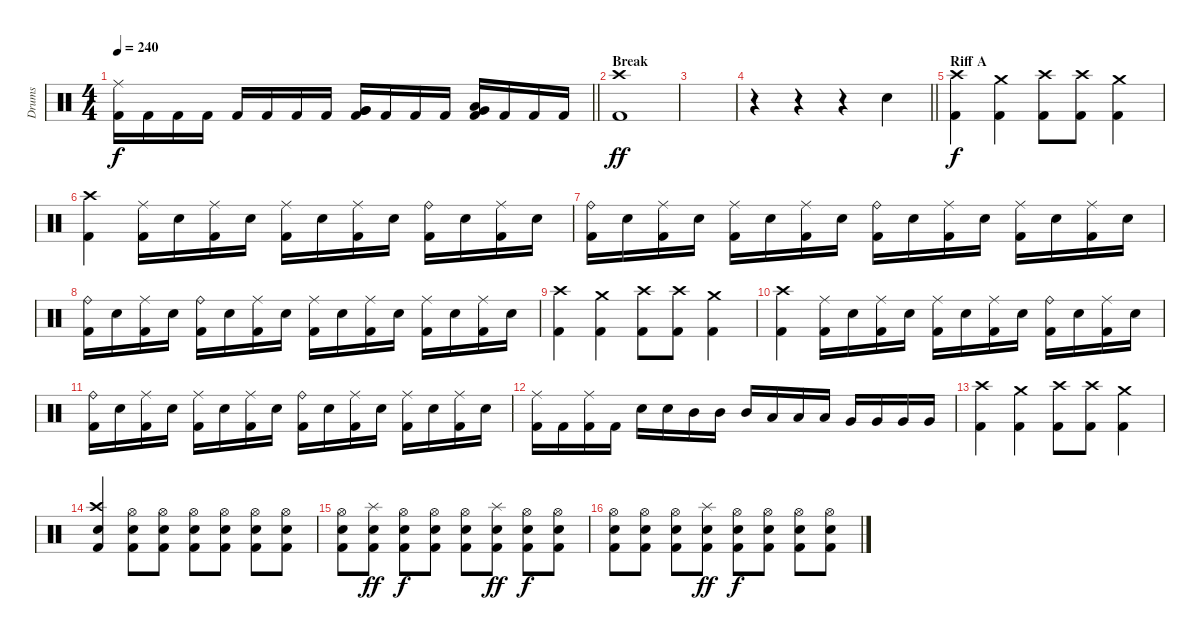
\track ("Drums" "Drums") {instrument percussion}
\staff {score}
\articulation defaults
\ts (4 4)
\tempo 240
\clef neutral
\barLineRight lightlight
\ks c
("Ride (middle)" "Kick (hit) 2").16{dy f} "Kick (hit) 2".16 "Kick (hit) 2".16 "Kick (hit) 2".16 "Kick (hit) 2".16 "Kick (hit) 2".16 "Kick (hit) 2".16 "Kick (hit) 2".16 ("Very Low Tom (hit)" "Very Low Tom (hit)" "Kick (hit) 2").16 "Kick (hit) 2".16 "Kick (hit) 2".16 "Kick (hit) 2".16 ("Very Low Tom (hit)" "Low Floor Tom (hit)" "Kick (hit) 2").16 "Kick (hit) 2".16 "Kick (hit) 2".16 "Kick (hit) 2".16 |
\section ("" "Break")
("Crash high (hit)" "Kick (hit) 2").1{dy ff} |
|
\barLineRight lightlight
r.4 r.4 r.4 "Electric Snare (hit)".4 |
\section ("" "Riff A")
("Crash high (hit)" "Kick (hit) 2").4{dy f} ("Crash medium (hit)" "Kick (hit) 2").4 ("Crash high (hit)" "Kick (hit) 2").8 ("Crash high (hit)" "Kick (hit) 2").8 ("Crash medium (hit)" "Kick (hit) 2").4 |
("Crash high (hit)" "Kick (hit) 2").4 ("Ride (middle)" "Kick (hit) 2").16 "Electric Snare (hit)".16 ("Ride (middle)" "Kick (hit) 2").16 "Electric Snare (hit)".16 ("Ride (middle)" "Kick (hit) 2").16 "Electric Snare (hit)".16 ("Ride (middle)" "Kick (hit) 2").16 "Electric Snare (hit)".16 ("Ride (bell)" "Kick (hit) 2").16 "Electric Snare (hit)".16 ("Ride (middle)" "Kick (hit) 2").16 "Electric Snare (hit)".16 |
("Ride (bell)" "Kick (hit) 2").16 "Electric Snare (hit)".16 ("Ride (middle)" "Kick (hit) 2").16 "Electric Snare (hit)".16 ("Ride (middle)" "Kick (hit) 2").16 "Electric Snare (hit)".16 ("Ride (middle)" "Kick (hit) 2").16 "Electric Snare (hit)".16 ("Ride (bell)" "Kick (hit) 2").16 "Electric Snare (hit)".16 ("Ride (middle)" "Kick (hit) 2").16 "Electric Snare (hit)".16 ("Ride (middle)" "Kick (hit) 2").16 "Electric Snare (hit)".16 ("Ride (middle)" "Kick (hit) 2").16 "Electric Snare (hit)".16 |
("Ride (bell)" "Kick (hit) 2").16 "Electric Snare (hit)".16 ("Ride (middle)" "Kick (hit) 2").16 "Electric Snare (hit)".16 ("Ride (bell)" "Kick (hit) 2").16 "Electric Snare (hit)".16 ("Ride (middle)" "Kick (hit) 2").16 "Electric Snare (hit)".16 ("Ride (middle)" "Kick (hit) 2").16 "Electric Snare (hit)".16 ("Ride (middle)" "Kick (hit) 2").16 "Electric Snare (hit)".16 ("Ride (middle)" "Kick (hit) 2").16 "Electric Snare (hit)".16 ("Ride (middle)" "Kick (hit) 2").16 "Electric Snare (hit)".16 |
("Crash high (hit)" "Kick (hit) 2").4 ("Crash medium (hit)" "Kick (hit) 2").4 ("Crash high (hit)" "Kick (hit) 2").8 ("Crash high (hit)" "Kick (hit) 2").8 ("Crash medium (hit)" "Kick (hit) 2").4 |
("Crash high (hit)" "Kick (hit) 2").4 ("Ride (middle)" "Kick (hit) 2").16 "Electric Snare (hit)".16 ("Ride (middle)" "Kick (hit) 2").16 "Electric Snare (hit)".16 ("Ride (middle)" "Kick (hit) 2").16 "Electric Snare (hit)".16 ("Ride (middle)" "Kick (hit) 2").16 "Electric Snare (hit)".16 ("Ride (bell)" "Kick (hit) 2").16 "Electric Snare (hit)".16 ("Ride (middle)" "Kick (hit) 2").16 "Electric Snare (hit)".16 |
("Ride (bell)" "Kick (hit) 2").16 "Electric Snare (hit)".16 ("Ride (middle)" "Kick (hit) 2").16 "Electric Snare (hit)".16 ("Ride (middle)" "Kick (hit) 2").16 "Electric Snare (hit)".16 ("Ride (middle)" "Kick (hit) 2").16 "Electric Snare (hit)".16 ("Ride (bell)" "Kick (hit) 2").16 "Electric Snare (hit)".16 ("Ride (middle)" "Kick (hit) 2").16 "Electric Snare (hit)".16 ("Ride (middle)" "Kick (hit) 2").16 "Electric Snare (hit)".16 ("Ride (middle)" "Kick (hit) 2").16 "Electric Snare (hit)".16 |
("Ride (middle)" "Kick (hit) 2").16 "Kick (hit) 2".16 ("Ride (middle)" "Kick (hit) 2").16 "Kick (hit) 2".16 "Electric Snare (hit)".16 "Electric Snare (hit)".16 "Mid Tom (hit)".16 "Mid Tom (hit)".16 "Mid Tom (hit)".16 "Low Tom (hit)".16 "Low Tom (hit)".16 "Low Tom (hit)".16 "Very Low Tom (hit)".16 "Very Low Tom (hit)".16 "Very Low Tom (hit)".16 "Very Low Tom (hit)".16 |
("Crash high (hit)" "Kick (hit) 2").4 ("Crash medium (hit)" "Kick (hit) 2").4 ("Crash high (hit)" "Kick (hit) 2").8 ("Crash high (hit)" "Kick (hit) 2").8 ("Crash medium (hit)" "Kick (hit) 2").4 |
("Crash high (hit)" "Electric Snare (hit)" "Kick (hit) 2").4 ("Hi-Hat (open)" "Electric Snare (hit)" "Kick (hit) 2").8 ("Hi-Hat (open)" "Electric Snare (hit)" "Kick (hit) 2").8 ("Hi-Hat (open)" "Electric Snare (hit)" "Kick (hit) 2").8 ("Hi-Hat (open)" "Electric Snare (hit)" "Kick (hit) 2").8 ("Hi-Hat (open)" "Electric Snare (hit)" "Kick (hit) 2").8 ("Hi-Hat (open)" "Electric Snare (hit)" "Kick (hit) 2").8 |
("Hi-Hat (open)" "Electric Snare (hit)" "Kick (hit) 2").8 ("Splash (hit)" "Electric Snare (hit)" "Kick (hit) 2").8{dy ff} ("Hi-Hat (open)" "Electric Snare (hit)" "Kick (hit) 2").8{dy f} ("Hi-Hat (open)" "Electric Snare (hit)" "Kick (hit) 2").8 ("Hi-Hat (open)" "Electric Snare (hit)" "Kick (hit) 2").8 ("Splash (hit)" "Electric Snare (hit)" "Kick (hit) 2").8{dy ff} ("Hi-Hat (open)" "Electric Snare (hit)" "Kick (hit) 2").8{dy f} ("Hi-Hat (open)" "Electric Snare (hit)" "Kick (hit) 2").8 |
("Hi-Hat (open)" "Electric Snare (hit)" "Kick (hit) 2").8 ("Hi-Hat (open)" "Electric Snare (hit)" "Kick (hit) 2").8 ("Hi-Hat (open)" "Electric Snare (hit)" "Kick (hit) 2").8 ("Splash (hit)" "Electric Snare (hit)" "Kick (hit) 2").8{dy ff} ("Hi-Hat (open)" "Electric Snare (hit)" "Kick (hit) 2").8{dy f} ("Hi-Hat (open)" "Electric Snare (hit)" "Kick (hit) 2").8 ("Hi-Hat (open)" "Electric Snare (hit)" "Kick (hit) 2").8 ("Hi-Hat (open)" "Electric Snare (hit)" "Kick (hit) 2").8
